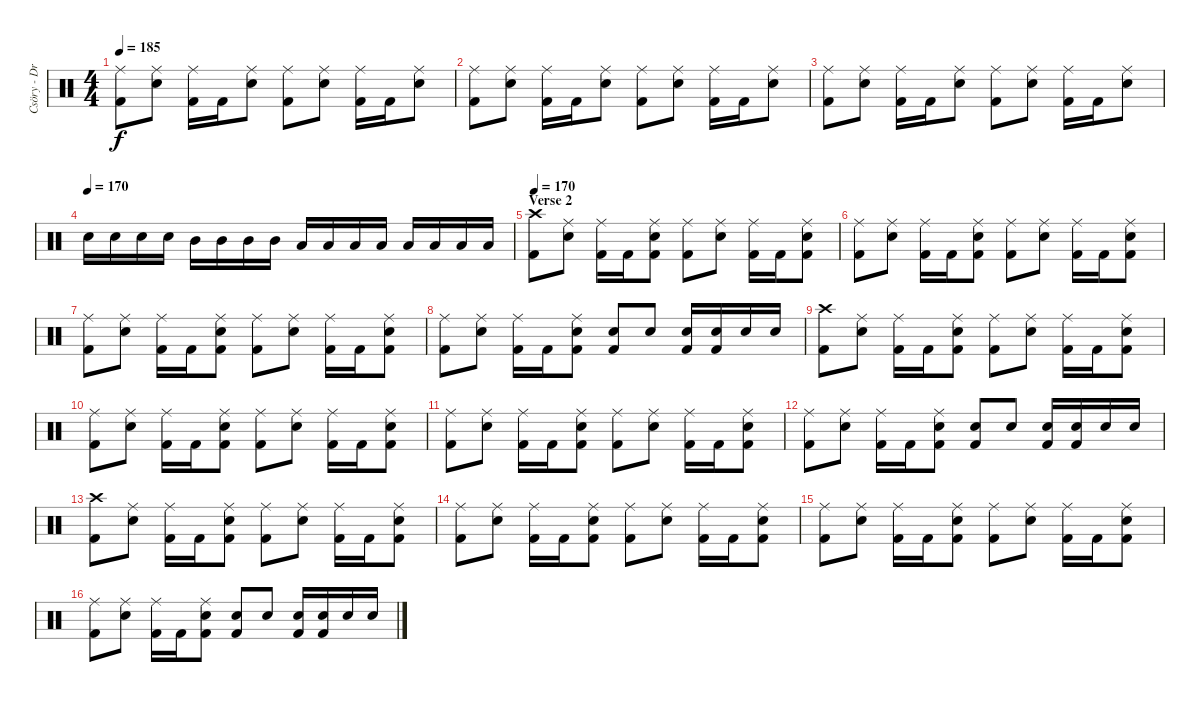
\track ("Csöry - DrumZ" "Csöry - Dr") {instrument percussion}
\staff {score}
\articulation defaults
\ts (4 4)
\tempo 185
\clef neutral
\ks c
("Ride (middle)" "Kick (hit) 2").8{dy f} ("Ride (middle)" "Snare (hit) 2").8 ("Ride (middle)" "Kick (hit) 2").16 "Kick (hit) 2".16 ("Ride (middle)" "Snare (hit) 2").8 ("Ride (middle)" "Kick (hit) 2").8 ("Ride (middle)" "Snare (hit) 2").8 ("Ride (middle)" "Kick (hit) 2").16 "Kick (hit) 2".16 ("Ride (middle)" "Snare (hit) 2").8 |
("Ride (middle)" "Kick (hit) 2").8 ("Ride (middle)" "Snare (hit) 2").8 ("Ride (middle)" "Kick (hit) 2").16 "Kick (hit) 2".16 ("Ride (middle)" "Snare (hit) 2").8 ("Ride (middle)" "Kick (hit) 2").8 ("Ride (middle)" "Snare (hit) 2").8 ("Ride (middle)" "Kick (hit) 2").16 "Kick (hit) 2".16 ("Ride (middle)" "Snare (hit) 2").8 |
("Ride (middle)" "Kick (hit) 2").8 ("Ride (middle)" "Snare (hit) 2").8 ("Ride (middle)" "Kick (hit) 2").16 "Kick (hit) 2".16 ("Ride (middle)" "Snare (hit) 2").8 ("Ride (middle)" "Kick (hit) 2").8 ("Ride (middle)" "Snare (hit) 2").8 ("Ride (middle)" "Kick (hit) 2").16 "Kick (hit) 2".16 ("Ride (middle)" "Snare (hit) 2").8 |
\tempo (170)
"Snare (hit) 2".16 "Snare (hit) 2".16 "Snare (hit) 2".16 "Snare (hit) 2".16 "Mid Tom (hit)".16 "Mid Tom (hit)".16 "Mid Tom (hit)".16 "Mid Tom (hit)".16 "Low Tom (hit)".16 "Low Tom (hit)".16 "Low Tom (hit)".16 "Low Tom (hit)".16 "Low Floor Tom (hit)".16 "Low Floor Tom (hit)".16 "Low Floor Tom (hit)".16 "Low Floor Tom (hit)".16 |
\section ("" "Verse 2")
\tempo 170
("Crash high (hit)" "Kick (hit) 2").8 ("Ride (middle)" "Snare (hit) 2").8 ("Ride (middle)" "Kick (hit) 2").16 "Kick (hit) 2".16 ("Ride (middle)" "Snare (hit) 2" "Kick (hit) 2").8 ("Ride (middle)" "Kick (hit) 2").8 ("Ride (middle)" "Snare (hit) 2").8 ("Ride (middle)" "Kick (hit) 2").16 "Kick (hit) 2".16 ("Ride (middle)" "Snare (hit) 2" "Kick (hit) 2").8 |
("Ride (middle)" "Kick (hit) 2").8 ("Ride (middle)" "Snare (hit) 2").8 ("Ride (middle)" "Kick (hit) 2").16 "Kick (hit) 2".16 ("Ride (middle)" "Snare (hit) 2" "Kick (hit) 2").8 ("Ride (middle)" "Kick (hit) 2").8 ("Ride (middle)" "Snare (hit) 2").8 ("Ride (middle)" "Kick (hit) 2").16 "Kick (hit) 2".16 ("Ride (middle)" "Snare (hit) 2" "Kick (hit) 2").8 |
("Ride (middle)" "Kick (hit) 2").8 ("Ride (middle)" "Snare (hit) 2").8 ("Ride (middle)" "Kick (hit) 2").16 "Kick (hit) 2".16 ("Ride (middle)" "Snare (hit) 2" "Kick (hit) 2").8 ("Ride (middle)" "Kick (hit) 2").8 ("Ride (middle)" "Snare (hit) 2").8 ("Ride (middle)" "Kick (hit) 2").16 "Kick (hit) 2".16 ("Ride (middle)" "Snare (hit) 2" "Kick (hit) 2").8 |
("Ride (middle)" "Kick (hit) 2").8 ("Ride (middle)" "Snare (hit) 2").8 ("Ride (middle)" "Kick (hit) 2").16 "Kick (hit) 2".16 ("Ride (middle)" "Snare (hit) 2" "Kick (hit) 2").8 ("Snare (hit) 2" "Kick (hit) 2").8 "Snare (hit) 2".8 ("Snare (hit) 2" "Kick (hit) 2").16 ("Snare (hit) 2" "Kick (hit) 2").16 "Snare (hit) 2".16 "Snare (hit) 2".16 |
("Crash high (hit)" "Kick (hit) 2").8 ("Ride (middle)" "Snare (hit) 2").8 ("Ride (middle)" "Kick (hit) 2").16 "Kick (hit) 2".16 ("Ride (middle)" "Snare (hit) 2" "Kick (hit) 2").8 ("Ride (middle)" "Kick (hit) 2").8 ("Ride (middle)" "Snare (hit) 2").8 ("Ride (middle)" "Kick (hit) 2").16 "Kick (hit) 2".16 ("Ride (middle)" "Snare (hit) 2" "Kick (hit) 2").8 |
("Ride (middle)" "Kick (hit) 2").8 ("Ride (middle)" "Snare (hit) 2").8 ("Ride (middle)" "Kick (hit) 2").16 "Kick (hit) 2".16 ("Ride (middle)" "Snare (hit) 2" "Kick (hit) 2").8 ("Ride (middle)" "Kick (hit) 2").8 ("Ride (middle)" "Snare (hit) 2").8 ("Ride (middle)" "Kick (hit) 2").16 "Kick (hit) 2".16 ("Ride (middle)" "Snare (hit) 2" "Kick (hit) 2").8 |
("Ride (middle)" "Kick (hit) 2").8 ("Ride (middle)" "Snare (hit) 2").8 ("Ride (middle)" "Kick (hit) 2").16 "Kick (hit) 2".16 ("Ride (middle)" "Snare (hit) 2" "Kick (hit) 2").8 ("Ride (middle)" "Kick (hit) 2").8 ("Ride (middle)" "Snare (hit) 2").8 ("Ride (middle)" "Kick (hit) 2").16 "Kick (hit) 2".16 ("Ride (middle)" "Snare (hit) 2" "Kick (hit) 2").8 |
("Ride (middle)" "Kick (hit) 2").8 ("Ride (middle)" "Snare (hit) 2").8 ("Ride (middle)" "Kick (hit) 2").16 "Kick (hit) 2".16 ("Ride (middle)" "Snare (hit) 2" "Kick (hit) 2").8 ("Snare (hit) 2" "Kick (hit) 2").8 "Snare (hit) 2".8 ("Snare (hit) 2" "Kick (hit) 2").16 ("Snare (hit) 2" "Kick (hit) 2").16 "Snare (hit) 2".16 "Snare (hit) 2".16 |
("Crash high (hit)" "Kick (hit) 2").8 ("Ride (middle)" "Snare (hit) 2").8 ("Ride (middle)" "Kick (hit) 2").16 "Kick (hit) 2".16 ("Ride (middle)" "Snare (hit) 2" "Kick (hit) 2").8 ("Ride (middle)" "Kick (hit) 2").8 ("Ride (middle)" "Snare (hit) 2").8 ("Ride (middle)" "Kick (hit) 2").16 "Kick (hit) 2".16 ("Ride (middle)" "Snare (hit) 2" "Kick (hit) 2").8 |
("Ride (middle)" "Kick (hit) 2").8 ("Ride (middle)" "Snare (hit) 2").8 ("Ride (middle)" "Kick (hit) 2").16 "Kick (hit) 2".16 ("Ride (middle)" "Snare (hit) 2" "Kick (hit) 2").8 ("Ride (middle)" "Kick (hit) 2").8 ("Ride (middle)" "Snare (hit) 2").8 ("Ride (middle)" "Kick (hit) 2").16 "Kick (hit) 2".16 ("Ride (middle)" "Snare (hit) 2" "Kick (hit) 2").8 |
("Ride (middle)" "Kick (hit) 2").8 ("Ride (middle)" "Snare (hit) 2").8 ("Ride (middle)" "Kick (hit) 2").16 "Kick (hit) 2".16 ("Ride (middle)" "Snare (hit) 2" "Kick (hit) 2").8 ("Ride (middle)" "Kick (hit) 2").8 ("Ride (middle)" "Snare (hit) 2").8 ("Ride (middle)" "Kick (hit) 2").16 "Kick (hit) 2".16 ("Ride (middle)" "Snare (hit) 2" "Kick (hit) 2").8 |
("Ride (middle)" "Kick (hit) 2").8 ("Ride (middle)" "Snare (hit) 2").8 ("Ride (middle)" "Kick (hit) 2").16 "Kick (hit) 2".16 ("Ride (middle)" "Snare (hit) 2" "Kick (hit) 2").8 ("Snare (hit) 2" "Kick (hit) 2").8 "Snare (hit) 2".8 ("Snare (hit) 2" "Kick (hit) 2").16 ("Snare (hit) 2" "Kick (hit) 2").16 "Snare (hit) 2".16 "Snare (hit) 2".16
